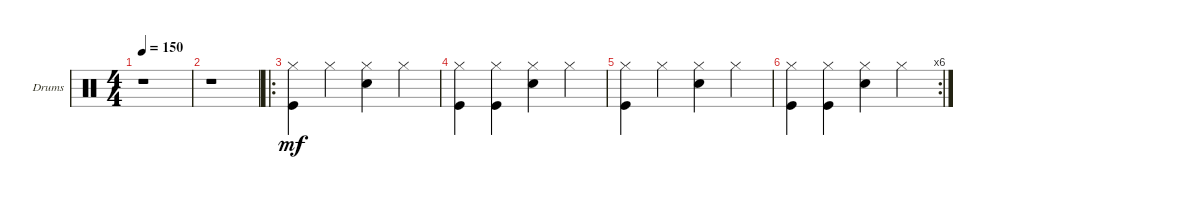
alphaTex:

\defaultSystemsLayout 4
\bracketExtendMode groupsimilarinstruments
\firstSystemTrackNameOrientation horizontal
\otherSystemsTrackNameOrientation horizontal
\track ("Drumkit" "Drums") {instrument percussion}
\staff {score}
\articulation defaults
\ts (4 4)
\tempo 150
\clef neutral
\scale
0.333333
\ks c
r.1{dy mf} |
\scale
0.333333 r.1 |
\ro
\scale
0.377778 ("Kick (hit)" "Hi-Hat (closed)").4 "Hi-Hat (closed)".4 ("Snare (hit) 2" "Hi-Hat (closed)").4 "Hi-Hat (closed)".4 |
\scale
0.311111 ("Kick (hit)" "Hi-Hat (closed)").4 ("Hi-Hat (closed)" "Kick (hit)").4 ("Snare (hit) 2" "Hi-Hat (closed)").4 "Hi-Hat (closed)".4 |
\scale
0.311111 ("Kick (hit)" "Hi-Hat (closed)").4 "Hi-Hat (closed)".4 ("Snare (hit) 2" "Hi-Hat (closed)").4 "Hi-Hat (closed)".4 |
\rc 6
("Kick (hit)" "Hi-Hat (closed)").4 ("Hi-Hat (closed)" "Kick (hit)").4 ("Snare (hit) 2" "Hi-Hat (closed)").4 "Hi-Hat (closed)".4
